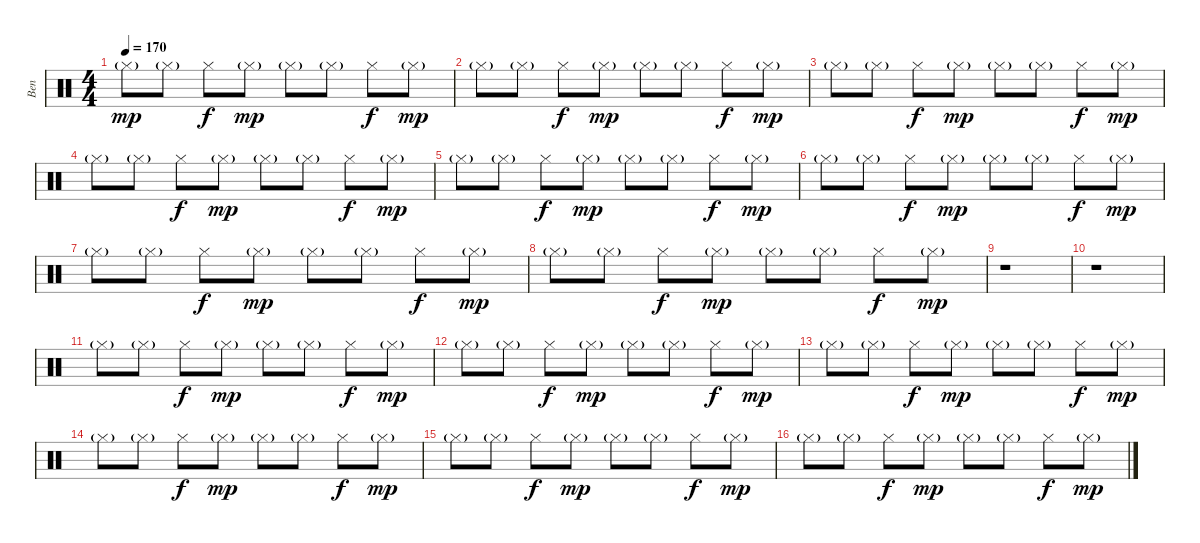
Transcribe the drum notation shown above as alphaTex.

\track ("Ben" "Ben") {instrument percussion}
\staff {score}
\articulation defaults
\ts (4 4)
\tempo 170
\clef neutral
\ks c "Hi-Hat (closed)"{g}.8{dy mp} "Hi-Hat (closed)"{g}.8 "Hi-Hat (closed)".8{dy f} "Hi-Hat (closed)"{g}.8{dy mp} "Hi-Hat (closed)"{g}.8 "Hi-Hat (closed)"{g}.8 "Hi-Hat (closed)".8{dy f} "Hi-Hat (closed)"{g}.8{dy mp}
|
"Hi-Hat (closed)"{g}.8 "Hi-Hat (closed)"{g}.8 "Hi-Hat (closed)".8{dy f} "Hi-Hat (closed)"{g}.8{dy mp} "Hi-Hat (closed)"{g}.8 "Hi-Hat (closed)"{g}.8 "Hi-Hat (closed)".8{dy f} "Hi-Hat (closed)"{g}.8{dy mp} |
"Hi-Hat (closed)"{g}.8 "Hi-Hat (closed)"{g}.8 "Hi-Hat (closed)".8{dy f} "Hi-Hat (closed)"{g}.8{dy mp} "Hi-Hat (closed)"{g}.8 "Hi-Hat (closed)"{g}.8 "Hi-Hat (closed)".8{dy f} "Hi-Hat (closed)"{g}.8{dy mp} |
"Hi-Hat (closed)"{g}.8 "Hi-Hat (closed)"{g}.8 "Hi-Hat (closed)".8{dy f} "Hi-Hat (closed)"{g}.8{dy mp} "Hi-Hat (closed)"{g}.8 "Hi-Hat (closed)"{g}.8 "Hi-Hat (closed)".8{dy f} "Hi-Hat (closed)"{g}.8{dy mp} |
"Hi-Hat (closed)"{g}.8 "Hi-Hat (closed)"{g}.8 "Hi-Hat (closed)".8{dy f} "Hi-Hat (closed)"{g}.8{dy mp} "Hi-Hat (closed)"{g}.8 "Hi-Hat (closed)"{g}.8 "Hi-Hat (closed)".8{dy f} "Hi-Hat (closed)"{g}.8{dy mp} |
"Hi-Hat (closed)"{g}.8 "Hi-Hat (closed)"{g}.8 "Hi-Hat (closed)".8{dy f} "Hi-Hat (closed)"{g}.8{dy mp} "Hi-Hat (closed)"{g}.8 "Hi-Hat (closed)"{g}.8 "Hi-Hat (closed)".8{dy f} "Hi-Hat (closed)"{g}.8{dy mp} |
"Hi-Hat (closed)"{g}.8 "Hi-Hat (closed)"{g}.8 "Hi-Hat (closed)".8{dy f} "Hi-Hat (closed)"{g}.8{dy mp} "Hi-Hat (closed)"{g}.8 "Hi-Hat (closed)"{g}.8 "Hi-Hat (closed)".8{dy f} "Hi-Hat (closed)"{g}.8{dy mp} |
"Hi-Hat (closed)"{g}.8 "Hi-Hat (closed)"{g}.8 "Hi-Hat (closed)".8{dy f} "Hi-Hat (closed)"{g}.8{dy mp} "Hi-Hat (closed)"{g}.8 "Hi-Hat (closed)"{g}.8 "Hi-Hat (closed)".8{dy f} "Hi-Hat (closed)"{g}.8{dy mp} |
r.1 |
r.1 |
"Hi-Hat (closed)"{g}.8 "Hi-Hat (closed)"{g}.8 "Hi-Hat (closed)".8{dy f} "Hi-Hat (closed)"{g}.8{dy mp} "Hi-Hat (closed)"{g}.8 "Hi-Hat (closed)"{g}.8 "Hi-Hat (closed)".8{dy f} "Hi-Hat (closed)"{g}.8{dy mp} |
"Hi-Hat (closed)"{g}.8 "Hi-Hat (closed)"{g}.8 "Hi-Hat (closed)".8{dy f} "Hi-Hat (closed)"{g}.8{dy mp} "Hi-Hat (closed)"{g}.8 "Hi-Hat (closed)"{g}.8 "Hi-Hat (closed)".8{dy f} "Hi-Hat (closed)"{g}.8{dy mp} |
"Hi-Hat (closed)"{g}.8 "Hi-Hat (closed)"{g}.8 "Hi-Hat (closed)".8{dy f} "Hi-Hat (closed)"{g}.8{dy mp} "Hi-Hat (closed)"{g}.8 "Hi-Hat (closed)"{g}.8 "Hi-Hat (closed)".8{dy f} "Hi-Hat (closed)"{g}.8{dy mp} |
"Hi-Hat (closed)"{g}.8 "Hi-Hat (closed)"{g}.8 "Hi-Hat (closed)".8{dy f} "Hi-Hat (closed)"{g}.8{dy mp} "Hi-Hat (closed)"{g}.8 "Hi-Hat (closed)"{g}.8 "Hi-Hat (closed)".8{dy f} "Hi-Hat (closed)"{g}.8{dy mp} |
"Hi-Hat (closed)"{g}.8 "Hi-Hat (closed)"{g}.8 "Hi-Hat (closed)".8{dy f} "Hi-Hat (closed)"{g}.8{dy mp} "Hi-Hat (closed)"{g}.8 "Hi-Hat (closed)"{g}.8 "Hi-Hat (closed)".8{dy f} "Hi-Hat (closed)"{g}.8{dy mp} |
"Hi-Hat (closed)"{g}.8 "Hi-Hat (closed)"{g}.8 "Hi-Hat (closed)".8{dy f} "Hi-Hat (closed)"{g}.8{dy mp} "Hi-Hat (closed)"{g}.8 "Hi-Hat (closed)"{g}.8 "Hi-Hat (closed)".8{dy f} "Hi-Hat (closed)"{g}.8{dy mp}
